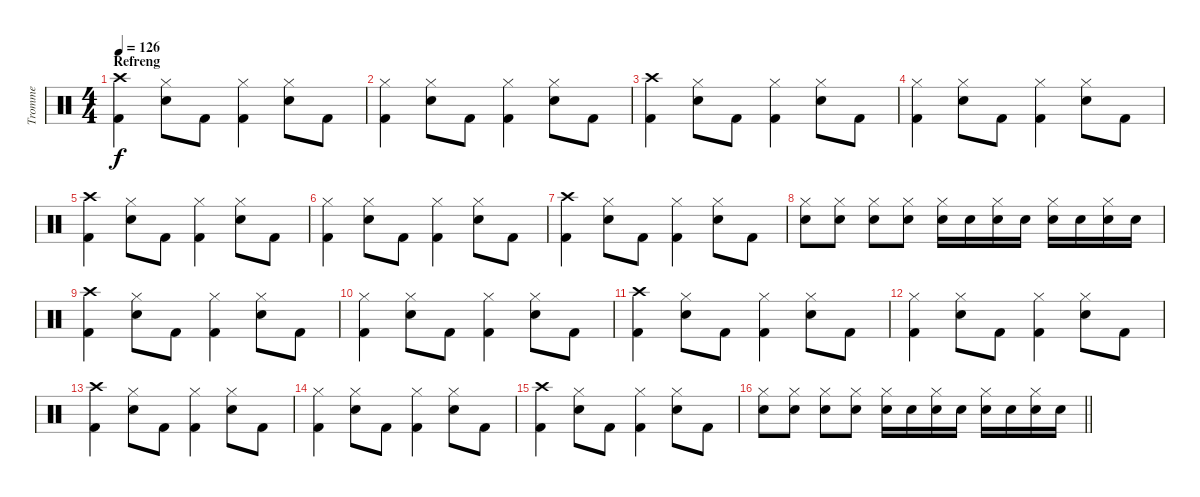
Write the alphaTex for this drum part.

\track ("Tromme" "Tromme") {instrument percussion}
\staff {score}
\articulation defaults
\ts (4 4)
\section ("" "Refreng")
\tempo 126
\clef neutral
\ks c
("Crash high (hit)" "Kick (hit) 2").4{dy f} ("Hi-Hat (closed)" "Snare (hit) 2").8 "Kick (hit) 2".8 ("Hi-Hat (closed)" "Kick (hit) 2").4 ("Hi-Hat (closed)" "Snare (hit) 2").8 "Kick (hit) 2".8 |
("Hi-Hat (closed)" "Kick (hit) 2").4 ("Hi-Hat (closed)" "Snare (hit) 2").8 "Kick (hit) 2".8 ("Hi-Hat (closed)" "Kick (hit) 2").4 ("Hi-Hat (closed)" "Snare (hit) 2").8 "Kick (hit) 2".8 |
("Crash high (hit)" "Kick (hit) 2").4 ("Hi-Hat (closed)" "Snare (hit) 2").8 "Kick (hit) 2".8 ("Hi-Hat (closed)" "Kick (hit) 2").4 ("Hi-Hat (closed)" "Snare (hit) 2").8 "Kick (hit) 2".8 |
("Hi-Hat (closed)" "Kick (hit) 2").4 ("Hi-Hat (closed)" "Snare (hit) 2").8 "Kick (hit) 2".8 ("Hi-Hat (closed)" "Kick (hit) 2").4 ("Hi-Hat (closed)" "Snare (hit) 2").8 "Kick (hit) 2".8 |
("Crash high (hit)" "Kick (hit) 2").4 ("Hi-Hat (closed)" "Snare (hit) 2").8 "Kick (hit) 2".8 ("Hi-Hat (closed)" "Kick (hit) 2").4 ("Hi-Hat (closed)" "Snare (hit) 2").8 "Kick (hit) 2".8 |
("Hi-Hat (closed)" "Kick (hit) 2").4 ("Hi-Hat (closed)" "Snare (hit) 2").8 "Kick (hit) 2".8 ("Hi-Hat (closed)" "Kick (hit) 2").4 ("Hi-Hat (closed)" "Snare (hit) 2").8 "Kick (hit) 2".8 |
("Crash high (hit)" "Kick (hit) 2").4 ("Hi-Hat (closed)" "Snare (hit) 2").8 "Kick (hit) 2".8 ("Hi-Hat (closed)" "Kick (hit) 2").4 ("Hi-Hat (closed)" "Snare (hit) 2").8 "Kick (hit) 2".8 |
("Hi-Hat (closed)" "Snare (hit) 2").8 ("Hi-Hat (closed)" "Snare (hit) 2").8 ("Hi-Hat (closed)" "Snare (hit) 2").8 ("Hi-Hat (closed)" "Snare (hit) 2").8 ("Hi-Hat (closed)" "Snare (hit) 2").16 "Snare (hit) 2".16 ("Hi-Hat (closed)" "Snare (hit) 2").16 "Snare (hit) 2".16 ("Hi-Hat (closed)" "Snare (hit) 2").16 "Snare (hit) 2".16 ("Hi-Hat (closed)" "Snare (hit) 2").16 "Snare (hit) 2".16 |
("Crash high (hit)" "Kick (hit) 2").4 ("Hi-Hat (closed)" "Snare (hit) 2").8 "Kick (hit) 2".8 ("Hi-Hat (closed)" "Kick (hit) 2").4 ("Hi-Hat (closed)" "Snare (hit) 2").8 "Kick (hit) 2".8 |
("Hi-Hat (closed)" "Kick (hit) 2").4 ("Hi-Hat (closed)" "Snare (hit) 2").8 "Kick (hit) 2".8 ("Hi-Hat (closed)" "Kick (hit) 2").4 ("Hi-Hat (closed)" "Snare (hit) 2").8 "Kick (hit) 2".8 |
("Crash high (hit)" "Kick (hit) 2").4 ("Hi-Hat (closed)" "Snare (hit) 2").8 "Kick (hit) 2".8 ("Hi-Hat (closed)" "Kick (hit) 2").4 ("Hi-Hat (closed)" "Snare (hit) 2").8 "Kick (hit) 2".8 |
("Hi-Hat (closed)" "Kick (hit) 2").4 ("Hi-Hat (closed)" "Snare (hit) 2").8 "Kick (hit) 2".8 ("Hi-Hat (closed)" "Kick (hit) 2").4 ("Hi-Hat (closed)" "Snare (hit) 2").8 "Kick (hit) 2".8 |
("Crash high (hit)" "Kick (hit) 2").4 ("Hi-Hat (closed)" "Snare (hit) 2").8 "Kick (hit) 2".8 ("Hi-Hat (closed)" "Kick (hit) 2").4 ("Hi-Hat (closed)" "Snare (hit) 2").8 "Kick (hit) 2".8 |
("Hi-Hat (closed)" "Kick (hit) 2").4 ("Hi-Hat (closed)" "Snare (hit) 2").8 "Kick (hit) 2".8 ("Hi-Hat (closed)" "Kick (hit) 2").4 ("Hi-Hat (closed)" "Snare (hit) 2").8 "Kick (hit) 2".8 |
("Crash high (hit)" "Kick (hit) 2").4 ("Hi-Hat (closed)" "Snare (hit) 2").8 "Kick (hit) 2".8 ("Hi-Hat (closed)" "Kick (hit) 2").4 ("Hi-Hat (closed)" "Snare (hit) 2").8 "Kick (hit) 2".8 |
\barLineRight lightlight
("Hi-Hat (closed)" "Snare (hit) 2").8 ("Hi-Hat (closed)" "Snare (hit) 2").8 ("Hi-Hat (closed)" "Snare (hit) 2").8 ("Hi-Hat (closed)" "Snare (hit) 2").8 ("Hi-Hat (closed)" "Snare (hit) 2").16 "Snare (hit) 2".16 ("Hi-Hat (closed)" "Snare (hit) 2").16 "Snare (hit) 2".16 ("Hi-Hat (closed)" "Snare (hit) 2").16 "Snare (hit) 2".16 ("Hi-Hat (closed)" "Snare (hit) 2").16 "Snare (hit) 2".16
